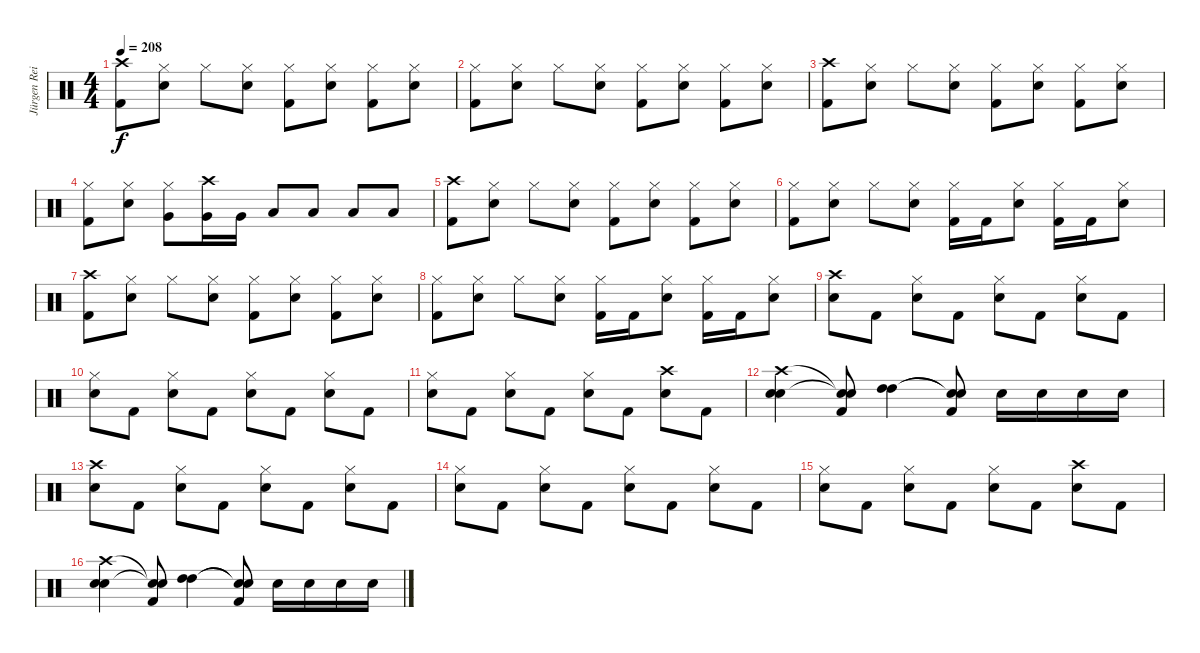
\track ("Jürgen Reil" "Jürgen Rei") {instrument percussion}
\staff {score}
\articulation defaults
\ts (4 4)
\tempo 208
\clef neutral
\ks c
("Crash high (hit)" "Kick (hit) 2").8{dy f} ("Hi-Hat (closed)" "Electric Snare (hit)").8 "Hi-Hat (closed)".8 ("Hi-Hat (closed)" "Electric Snare (hit)").8 ("Hi-Hat (closed)" "Kick (hit) 2").8 ("Hi-Hat (closed)" "Electric Snare (hit)").8 ("Hi-Hat (closed)" "Kick (hit) 2").8 ("Hi-Hat (closed)" "Electric Snare (hit)").8 |
("Hi-Hat (closed)" "Kick (hit) 2").8 ("Hi-Hat (closed)" "Electric Snare (hit)").8 "Hi-Hat (closed)".8 ("Hi-Hat (closed)" "Electric Snare (hit)").8 ("Hi-Hat (closed)" "Kick (hit) 2").8 ("Hi-Hat (closed)" "Electric Snare (hit)").8 ("Hi-Hat (closed)" "Kick (hit) 2").8 ("Hi-Hat (closed)" "Electric Snare (hit)").8 |
("Crash high (hit)" "Kick (hit) 2").8 ("Hi-Hat (closed)" "Electric Snare (hit)").8 "Hi-Hat (closed)".8 ("Hi-Hat (closed)" "Electric Snare (hit)").8 ("Hi-Hat (closed)" "Kick (hit) 2").8 ("Hi-Hat (closed)" "Electric Snare (hit)").8 ("Hi-Hat (closed)" "Kick (hit) 2").8 ("Hi-Hat (closed)" "Electric Snare (hit)").8 |
("Hi-Hat (closed)" "Kick (hit) 2").8 ("Hi-Hat (closed)" "Electric Snare (hit)").8 ("Hi-Hat (closed)" "Very Low Tom (hit)").8 ("Crash high (hit)" "Very Low Tom (hit)").16 "Very Low Tom (hit)".16 "Low Tom (hit)".8 "Low Tom (hit)".8 "Low Floor Tom (hit)".8 "Low Floor Tom (hit)".8 |
("Crash high (hit)" "Kick (hit) 2").8 ("Hi-Hat (closed)" "Electric Snare (hit)").8 "Hi-Hat (closed)".8 ("Hi-Hat (closed)" "Electric Snare (hit)").8 ("Hi-Hat (closed)" "Kick (hit) 2").8 ("Hi-Hat (closed)" "Electric Snare (hit)").8 ("Hi-Hat (closed)" "Kick (hit) 2").8 ("Hi-Hat (closed)" "Electric Snare (hit)").8 |
("Hi-Hat (closed)" "Kick (hit) 2").8 ("Hi-Hat (closed)" "Electric Snare (hit)").8 "Hi-Hat (closed)".8 ("Hi-Hat (closed)" "Electric Snare (hit)").8 ("Hi-Hat (closed)" "Kick (hit) 2").16 "Kick (hit) 2".16 ("Hi-Hat (closed)" "Electric Snare (hit)").8 ("Hi-Hat (closed)" "Kick (hit) 2").16 "Kick (hit) 2".16 ("Hi-Hat (closed)" "Electric Snare (hit)").8 |
("Crash high (hit)" "Kick (hit) 2").8 ("Hi-Hat (closed)" "Electric Snare (hit)").8 "Hi-Hat (closed)".8 ("Hi-Hat (closed)" "Electric Snare (hit)").8 ("Hi-Hat (closed)" "Kick (hit) 2").8 ("Hi-Hat (closed)" "Electric Snare (hit)").8 ("Hi-Hat (closed)" "Kick (hit) 2").8 ("Hi-Hat (closed)" "Electric Snare (hit)").8 |
("Hi-Hat (closed)" "Kick (hit) 2").8 ("Hi-Hat (closed)" "Electric Snare (hit)").8 "Hi-Hat (closed)".8 ("Hi-Hat (closed)" "Electric Snare (hit)").8 ("Hi-Hat (closed)" "Kick (hit) 2").16 "Kick (hit) 2".16 ("Hi-Hat (closed)" "Electric Snare (hit)").8 ("Hi-Hat (closed)" "Kick (hit) 2").16 "Kick (hit) 2".16 ("Hi-Hat (closed)" "Electric Snare (hit)").8 |
("Crash high (hit)" "Electric Snare (hit)").8 "Kick (hit) 2".8 ("Hi-Hat (closed)" "Electric Snare (hit)").8 "Kick (hit) 2".8 ("Hi-Hat (closed)" "Electric Snare (hit)").8 "Kick (hit) 2".8 ("Hi-Hat (closed)" "Electric Snare (hit)").8 "Kick (hit) 2".8 |
("Hi-Hat (closed)" "Electric Snare (hit)").8 "Kick (hit) 2".8 ("Hi-Hat (closed)" "Electric Snare (hit)").8 "Kick (hit) 2".8 ("Hi-Hat (closed)" "Electric Snare (hit)").8 "Kick (hit) 2".8 ("Hi-Hat (closed)" "Electric Snare (hit)").8 "Kick (hit) 2".8 |
("Hi-Hat (closed)" "Electric Snare (hit)").8 "Kick (hit) 2".8 ("Hi-Hat (closed)" "Electric Snare (hit)").8 "Kick (hit) 2".8 ("Hi-Hat (closed)" "Electric Snare (hit)").8 "Kick (hit) 2".8 ("Crash high (hit)" "Electric Snare (hit)").8 "Kick (hit) 2".8 |
("Crash high (hit)" "Electric Snare (hit)" "Electric Snare (hit)").4 ("Snare (hit)"{t} "Snare (hit)"{t} "Kick (hit) 2").8 ("High Tom (hit)" "High Tom (hit)").4 ("Snare (hit)"{t} "Snare (hit)"{t} "Kick (hit) 2").8 "Electric Snare (hit)".16 "Electric Snare (hit)".16 "Electric Snare (hit)".16 "Electric Snare (hit)".16 |
("Crash high (hit)" "Electric Snare (hit)").8 "Kick (hit) 2".8 ("Hi-Hat (closed)" "Electric Snare (hit)").8 "Kick (hit) 2".8 ("Hi-Hat (closed)" "Electric Snare (hit)").8 "Kick (hit) 2".8 ("Hi-Hat (closed)" "Electric Snare (hit)").8 "Kick (hit) 2".8 |
("Hi-Hat (closed)" "Electric Snare (hit)").8 "Kick (hit) 2".8 ("Hi-Hat (closed)" "Electric Snare (hit)").8 "Kick (hit) 2".8 ("Hi-Hat (closed)" "Electric Snare (hit)").8 "Kick (hit) 2".8 ("Hi-Hat (closed)" "Electric Snare (hit)").8 "Kick (hit) 2".8 |
("Hi-Hat (closed)" "Electric Snare (hit)").8 "Kick (hit) 2".8 ("Hi-Hat (closed)" "Electric Snare (hit)").8 "Kick (hit) 2".8 ("Hi-Hat (closed)" "Electric Snare (hit)").8 "Kick (hit) 2".8 ("Crash high (hit)" "Electric Snare (hit)").8 "Kick (hit) 2".8 |
("Crash high (hit)" "Electric Snare (hit)" "Electric Snare (hit)").4 ("Snare (hit)"{t} "Snare (hit)"{t} "Kick (hit) 2").8 ("High Tom (hit)" "High Tom (hit)").4 ("Snare (hit)"{t} "Snare (hit)"{t} "Kick (hit) 2").8 "Electric Snare (hit)".16 "Electric Snare (hit)".16 "Electric Snare (hit)".16 "Electric Snare (hit)".16
